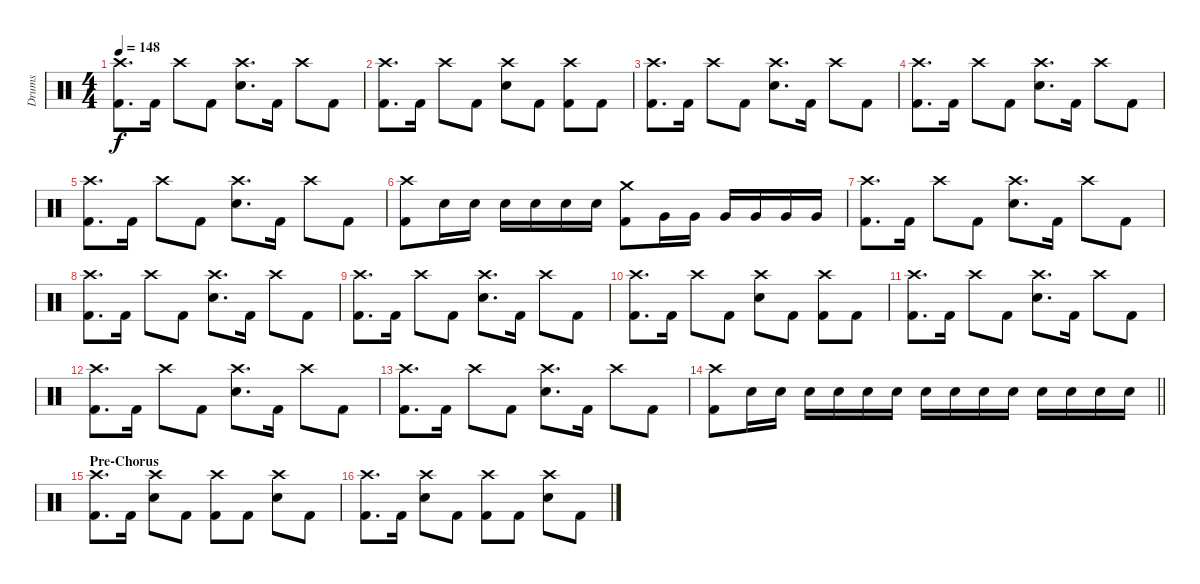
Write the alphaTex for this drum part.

\track ("Drums" "Drums") {instrument percussion}
\staff {score}
\articulation defaults
\ts (4 4)
\tempo 148
\clef neutral
\ks c
("Crash high (hit)" "Kick (hit) 2").8{d dy f} "Kick (hit) 2".16 "Crash high (hit)".8 "Kick (hit) 2".8 ("Crash high (hit)" "Snare (hit) 2").8{d} "Kick (hit) 2".16 "Crash high (hit)".8 "Kick (hit) 2".8 |
("Crash high (hit)" "Kick (hit) 2").8{d} "Kick (hit) 2".16 "Crash high (hit)".8 "Kick (hit) 2".8 ("Crash high (hit)" "Snare (hit) 2").8 "Kick (hit) 2".8 ("Crash high (hit)" "Kick (hit) 2").8 "Kick (hit) 2".8 |
("Crash high (hit)" "Kick (hit) 2").8{d} "Kick (hit) 2".16 "Crash high (hit)".8 "Kick (hit) 2".8 ("Crash high (hit)" "Snare (hit) 2").8{d} "Kick (hit) 2".16 "Crash high (hit)".8 "Kick (hit) 2".8 |
("Crash high (hit)" "Kick (hit) 2").8{d} "Kick (hit) 2".16 "Crash high (hit)".8 "Kick (hit) 2".8 ("Crash high (hit)" "Snare (hit) 2").8{d} "Kick (hit) 2".16 "Crash high (hit)".8 "Kick (hit) 2".8 |
("Crash high (hit)" "Kick (hit) 2").8{d} "Kick (hit) 2".16 "Crash high (hit)".8 "Kick (hit) 2".8 ("Crash high (hit)" "Snare (hit) 2").8{d} "Kick (hit) 2".16 "Crash high (hit)".8 "Kick (hit) 2".8 |
("Crash high (hit)" "Kick (hit) 2").8 "Snare (hit) 2".16 "Snare (hit) 2".16 "Snare (hit) 2".16 "Snare (hit) 2".16 "Snare (hit) 2".16 "Snare (hit) 2".16 ("Crash medium (hit)" "Kick (hit) 2").8 "Very Low Tom (hit)".16 "Very Low Tom (hit)".16 "Very Low Tom (hit)".16 "Very Low Tom (hit)".16 "Very Low Tom (hit)".16 "Very Low Tom (hit)".16 |
("Crash high (hit)" "Kick (hit) 2").8{d} "Kick (hit) 2".16 "Crash high (hit)".8 "Kick (hit) 2".8 ("Crash high (hit)" "Snare (hit) 2").8{d} "Kick (hit) 2".16 "Crash high (hit)".8 "Kick (hit) 2".8 |
("Crash high (hit)" "Kick (hit) 2").8{d} "Kick (hit) 2".16 "Crash high (hit)".8 "Kick (hit) 2".8 ("Crash high (hit)" "Snare (hit) 2").8{d} "Kick (hit) 2".16 "Crash high (hit)".8 "Kick (hit) 2".8 |
("Crash high (hit)" "Kick (hit) 2").8{d} "Kick (hit) 2".16 "Crash high (hit)".8 "Kick (hit) 2".8 ("Crash high (hit)" "Snare (hit) 2").8{d} "Kick (hit) 2".16 "Crash high (hit)".8 "Kick (hit) 2".8 |
("Crash high (hit)" "Kick (hit) 2").8{d} "Kick (hit) 2".16 "Crash high (hit)".8 "Kick (hit) 2".8 ("Crash high (hit)" "Snare (hit) 2").8 "Kick (hit) 2".8 ("Crash high (hit)" "Kick (hit) 2").8 "Kick (hit) 2".8 |
("Crash high (hit)" "Kick (hit) 2").8{d} "Kick (hit) 2".16 "Crash high (hit)".8 "Kick (hit) 2".8 ("Crash high (hit)" "Snare (hit) 2").8{d} "Kick (hit) 2".16 "Crash high (hit)".8 "Kick (hit) 2".8 |
("Crash high (hit)" "Kick (hit) 2").8{d} "Kick (hit) 2".16 "Crash high (hit)".8 "Kick (hit) 2".8 ("Crash high (hit)" "Snare (hit) 2").8{d} "Kick (hit) 2".16 "Crash high (hit)".8 "Kick (hit) 2".8 |
("Crash high (hit)" "Kick (hit) 2").8{d} "Kick (hit) 2".16 "Crash high (hit)".8 "Kick (hit) 2".8 ("Crash high (hit)" "Snare (hit) 2").8{d} "Kick (hit) 2".16 "Crash high (hit)".8 "Kick (hit) 2".8 |
\barLineRight lightlight
("Crash high (hit)" "Kick (hit) 2").8 "Snare (hit) 2".16 "Snare (hit) 2".16 "Snare (hit) 2".16 "Snare (hit) 2".16 "Snare (hit) 2".16 "Snare (hit) 2".16 "Snare (hit) 2".16 "Snare (hit) 2".16 "Snare (hit) 2".16 "Snare (hit) 2".16 "Snare (hit) 2".16 "Snare (hit) 2".16 "Snare (hit) 2".16 "Snare (hit) 2".16 |
\section ("" "Pre-Chorus")
("Crash high (hit)" "Kick (hit) 2").8{d} "Kick (hit) 2".16 ("Crash high (hit)" "Snare (hit) 2").8 "Kick (hit) 2".8 ("Crash high (hit)" "Kick (hit) 2").8 "Kick (hit) 2".8 ("Crash high (hit)" "Snare (hit) 2").8 "Kick (hit) 2".8 |
("Crash high (hit)" "Kick (hit) 2").8{d} "Kick (hit) 2".16 ("Crash high (hit)" "Snare (hit) 2").8 "Kick (hit) 2".8 ("Crash high (hit)" "Kick (hit) 2").8 "Kick (hit) 2".8 ("Crash high (hit)" "Snare (hit) 2").8 "Kick (hit) 2".8
